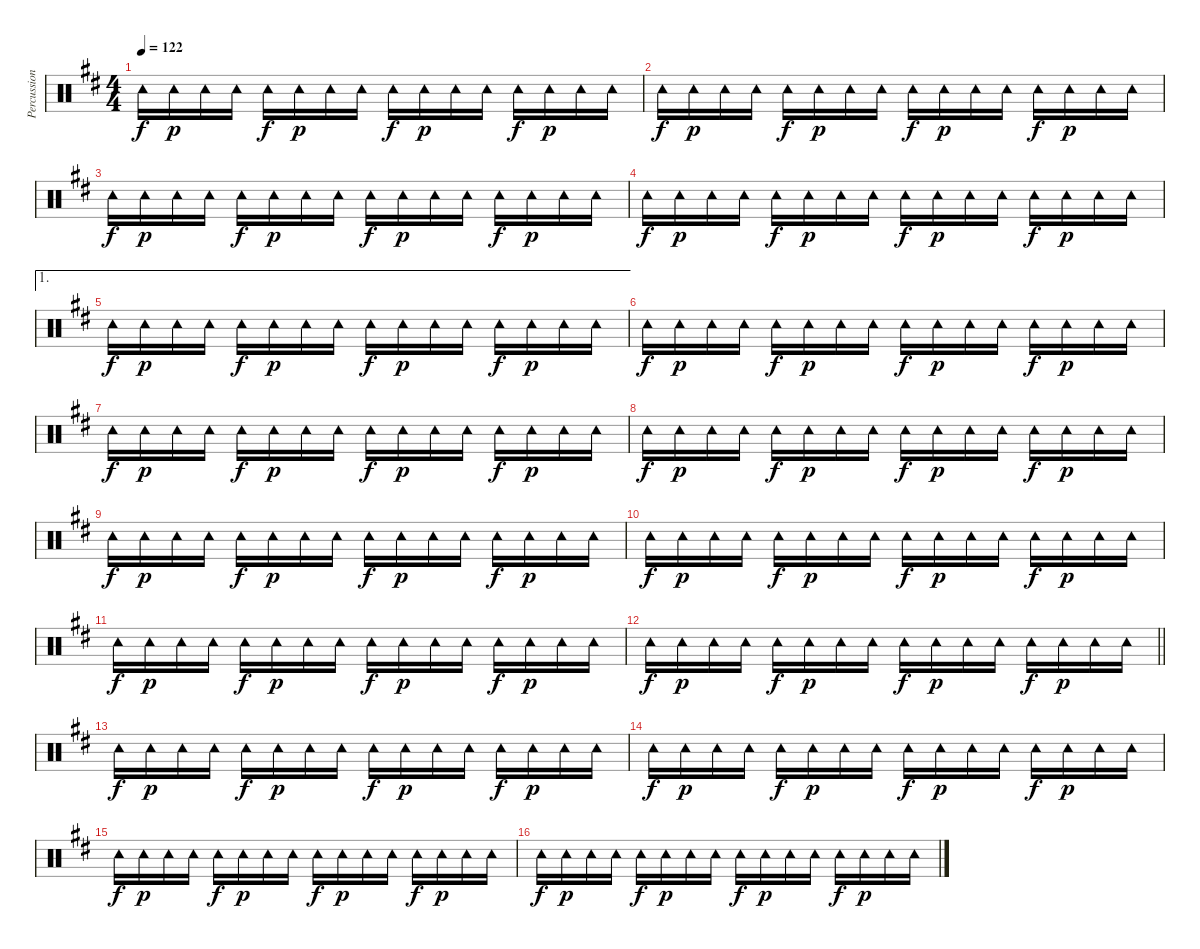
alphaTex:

\track ("Percussions" "Percussion") {instrument percussion}
\staff {score}
\articulation defaults
\ts (4 4)
\tempo 122
\clef neutral
\ks d "Tambourine (hit)".16{dy f} "Tambourine (hit)".16{dy p} "Tambourine (hit)".16 "Tambourine (hit)".16 "Tambourine (hit)".16{dy f} "Tambourine (hit)".16{dy p} "Tambourine (hit)".16 "Tambourine (hit)".16 "Tambourine (hit)".16{dy f} "Tambourine (hit)".16{dy p} "Tambourine (hit)".16 "Tambourine (hit)".16 "Tambourine (hit)".16{dy f} "Tambourine (hit)".16{dy p} "Tambourine (hit)".16 "Tambourine (hit)".16
|
"Tambourine (hit)".16{dy f} "Tambourine (hit)".16{dy p} "Tambourine (hit)".16 "Tambourine (hit)".16 "Tambourine (hit)".16{dy f} "Tambourine (hit)".16{dy p} "Tambourine (hit)".16 "Tambourine (hit)".16 "Tambourine (hit)".16{dy f} "Tambourine (hit)".16{dy p} "Tambourine (hit)".16 "Tambourine (hit)".16 "Tambourine (hit)".16{dy f} "Tambourine (hit)".16{dy p} "Tambourine (hit)".16 "Tambourine (hit)".16 |
"Tambourine (hit)".16{dy f} "Tambourine (hit)".16{dy p} "Tambourine (hit)".16 "Tambourine (hit)".16 "Tambourine (hit)".16{dy f} "Tambourine (hit)".16{dy p} "Tambourine (hit)".16 "Tambourine (hit)".16 "Tambourine (hit)".16{dy f} "Tambourine (hit)".16{dy p} "Tambourine (hit)".16 "Tambourine (hit)".16 "Tambourine (hit)".16{dy f} "Tambourine (hit)".16{dy p} "Tambourine (hit)".16 "Tambourine (hit)".16 |
"Tambourine (hit)".16{dy f} "Tambourine (hit)".16{dy p} "Tambourine (hit)".16 "Tambourine (hit)".16 "Tambourine (hit)".16{dy f} "Tambourine (hit)".16{dy p} "Tambourine (hit)".16 "Tambourine (hit)".16 "Tambourine (hit)".16{dy f} "Tambourine (hit)".16{dy p} "Tambourine (hit)".16 "Tambourine (hit)".16 "Tambourine (hit)".16{dy f} "Tambourine (hit)".16{dy p} "Tambourine (hit)".16 "Tambourine (hit)".16 |
\ae 1 "Tambourine (hit)".16{dy f} "Tambourine (hit)".16{dy p} "Tambourine (hit)".16 "Tambourine (hit)".16 "Tambourine (hit)".16{dy f} "Tambourine (hit)".16{dy p} "Tambourine (hit)".16 "Tambourine (hit)".16 "Tambourine (hit)".16{dy f} "Tambourine (hit)".16{dy p} "Tambourine (hit)".16 "Tambourine (hit)".16 "Tambourine (hit)".16{dy f} "Tambourine (hit)".16{dy p} "Tambourine (hit)".16 "Tambourine (hit)".16
|
"Tambourine (hit)".16{dy f} "Tambourine (hit)".16{dy p} "Tambourine (hit)".16 "Tambourine (hit)".16 "Tambourine (hit)".16{dy f} "Tambourine (hit)".16{dy p} "Tambourine (hit)".16 "Tambourine (hit)".16 "Tambourine (hit)".16{dy f} "Tambourine (hit)".16{dy p} "Tambourine (hit)".16 "Tambourine (hit)".16 "Tambourine (hit)".16{dy f} "Tambourine (hit)".16{dy p} "Tambourine (hit)".16 "Tambourine (hit)".16 |
"Tambourine (hit)".16{dy f} "Tambourine (hit)".16{dy p} "Tambourine (hit)".16 "Tambourine (hit)".16 "Tambourine (hit)".16{dy f} "Tambourine (hit)".16{dy p} "Tambourine (hit)".16 "Tambourine (hit)".16 "Tambourine (hit)".16{dy f} "Tambourine (hit)".16{dy p} "Tambourine (hit)".16 "Tambourine (hit)".16 "Tambourine (hit)".16{dy f} "Tambourine (hit)".16{dy p} "Tambourine (hit)".16 "Tambourine (hit)".16 |
"Tambourine (hit)".16{dy f} "Tambourine (hit)".16{dy p} "Tambourine (hit)".16 "Tambourine (hit)".16 "Tambourine (hit)".16{dy f} "Tambourine (hit)".16{dy p} "Tambourine (hit)".16 "Tambourine (hit)".16 "Tambourine (hit)".16{dy f} "Tambourine (hit)".16{dy p} "Tambourine (hit)".16 "Tambourine (hit)".16 "Tambourine (hit)".16{dy f} "Tambourine (hit)".16{dy p} "Tambourine (hit)".16 "Tambourine (hit)".16 |
"Tambourine (hit)".16{dy f} "Tambourine (hit)".16{dy p} "Tambourine (hit)".16 "Tambourine (hit)".16 "Tambourine (hit)".16{dy f} "Tambourine (hit)".16{dy p} "Tambourine (hit)".16 "Tambourine (hit)".16 "Tambourine (hit)".16{dy f} "Tambourine (hit)".16{dy p} "Tambourine (hit)".16 "Tambourine (hit)".16 "Tambourine (hit)".16{dy f} "Tambourine (hit)".16{dy p} "Tambourine (hit)".16 "Tambourine (hit)".16 |
"Tambourine (hit)".16{dy f} "Tambourine (hit)".16{dy p} "Tambourine (hit)".16 "Tambourine (hit)".16 "Tambourine (hit)".16{dy f} "Tambourine (hit)".16{dy p} "Tambourine (hit)".16 "Tambourine (hit)".16 "Tambourine (hit)".16{dy f} "Tambourine (hit)".16{dy p} "Tambourine (hit)".16 "Tambourine (hit)".16 "Tambourine (hit)".16{dy f} "Tambourine (hit)".16{dy p} "Tambourine (hit)".16 "Tambourine (hit)".16 |
"Tambourine (hit)".16{dy f} "Tambourine (hit)".16{dy p} "Tambourine (hit)".16 "Tambourine (hit)".16 "Tambourine (hit)".16{dy f} "Tambourine (hit)".16{dy p} "Tambourine (hit)".16 "Tambourine (hit)".16 "Tambourine (hit)".16{dy f} "Tambourine (hit)".16{dy p} "Tambourine (hit)".16 "Tambourine (hit)".16 "Tambourine (hit)".16{dy f} "Tambourine (hit)".16{dy p} "Tambourine (hit)".16 "Tambourine (hit)".16 |
\barLineRight lightlight "Tambourine (hit)".16{dy f} "Tambourine (hit)".16{dy p} "Tambourine (hit)".16 "Tambourine (hit)".16 "Tambourine (hit)".16{dy f} "Tambourine (hit)".16{dy p} "Tambourine (hit)".16 "Tambourine (hit)".16 "Tambourine (hit)".16{dy f} "Tambourine (hit)".16{dy p} "Tambourine (hit)".16 "Tambourine (hit)".16 "Tambourine (hit)".16{dy f} "Tambourine (hit)".16{dy p} "Tambourine (hit)".16 "Tambourine (hit)".16
|
"Tambourine (hit)".16{dy f} "Tambourine (hit)".16{dy p} "Tambourine (hit)".16 "Tambourine (hit)".16 "Tambourine (hit)".16{dy f} "Tambourine (hit)".16{dy p} "Tambourine (hit)".16 "Tambourine (hit)".16 "Tambourine (hit)".16{dy f} "Tambourine (hit)".16{dy p} "Tambourine (hit)".16 "Tambourine (hit)".16 "Tambourine (hit)".16{dy f} "Tambourine (hit)".16{dy p} "Tambourine (hit)".16 "Tambourine (hit)".16 |
"Tambourine (hit)".16{dy f} "Tambourine (hit)".16{dy p} "Tambourine (hit)".16 "Tambourine (hit)".16 "Tambourine (hit)".16{dy f} "Tambourine (hit)".16{dy p} "Tambourine (hit)".16 "Tambourine (hit)".16 "Tambourine (hit)".16{dy f} "Tambourine (hit)".16{dy p} "Tambourine (hit)".16 "Tambourine (hit)".16 "Tambourine (hit)".16{dy f} "Tambourine (hit)".16{dy p} "Tambourine (hit)".16 "Tambourine (hit)".16 |
"Tambourine (hit)".16{dy f} "Tambourine (hit)".16{dy p} "Tambourine (hit)".16 "Tambourine (hit)".16 "Tambourine (hit)".16{dy f} "Tambourine (hit)".16{dy p} "Tambourine (hit)".16 "Tambourine (hit)".16 "Tambourine (hit)".16{dy f} "Tambourine (hit)".16{dy p} "Tambourine (hit)".16 "Tambourine (hit)".16 "Tambourine (hit)".16{dy f} "Tambourine (hit)".16{dy p} "Tambourine (hit)".16 "Tambourine (hit)".16 |
"Tambourine (hit)".16{dy f} "Tambourine (hit)".16{dy p} "Tambourine (hit)".16 "Tambourine (hit)".16 "Tambourine (hit)".16{dy f} "Tambourine (hit)".16{dy p} "Tambourine (hit)".16 "Tambourine (hit)".16 "Tambourine (hit)".16{dy f} "Tambourine (hit)".16{dy p} "Tambourine (hit)".16 "Tambourine (hit)".16 "Tambourine (hit)".16{dy f} "Tambourine (hit)".16{dy p} "Tambourine (hit)".16 "Tambourine (hit)".16
